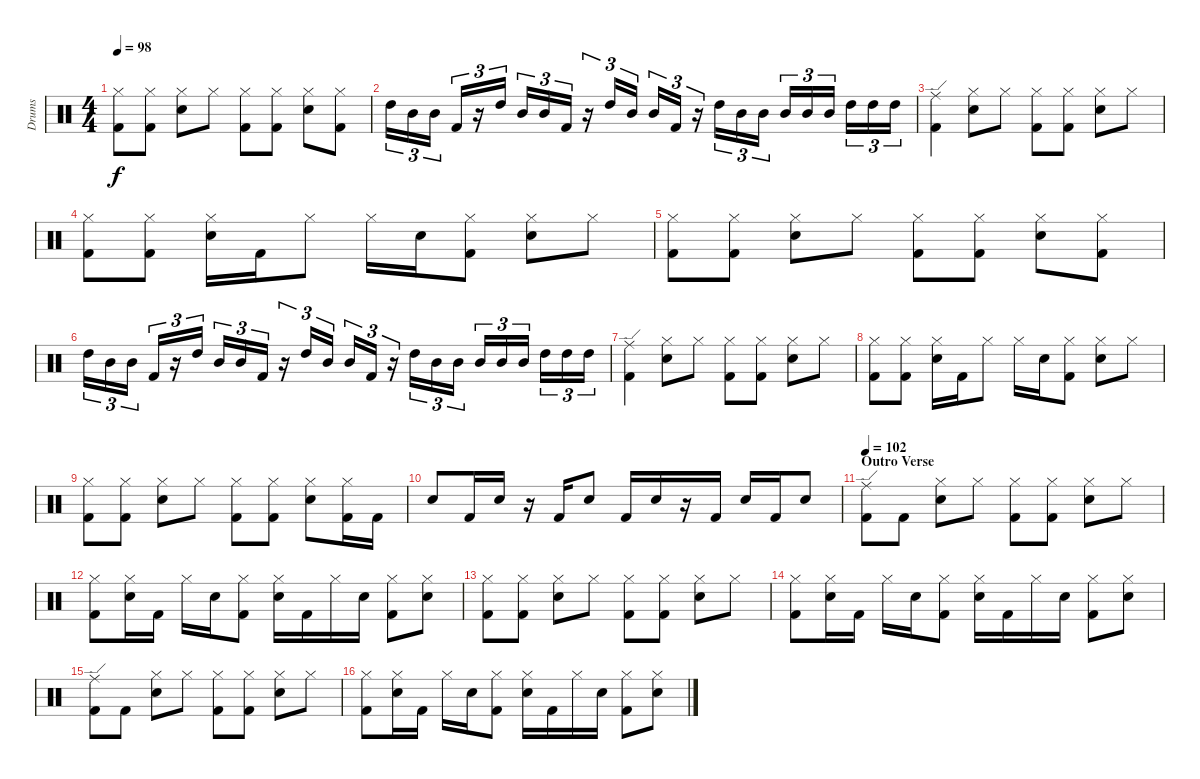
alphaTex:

\defaultSystemsLayout 4
\bracketExtendMode groupsimilarinstruments
\otherSystemsTrackNameOrientation horizontal
\track ("Drumkit (Bonham)" "Drums") {instrument percussion}
\staff {score}
\articulation defaults
\ts (4 4)
\tempo 98
\clef neutral
\scale
0.333333
\ks c
("Hi-Hat (closed)" "Kick (hit) 2").8{dy f beam Down} ("Hi-Hat (closed)" "Kick (hit) 2").8{beam Down} ("Hi-Hat (closed)" "Snare (hit) 2").8{beam Down} "Hi-Hat (closed)".8{beam Down} ("Hi-Hat (closed)" "Kick (hit) 2").8{beam Down} ("Hi-Hat (closed)" "Kick (hit) 2").8{beam Down} ("Hi-Hat (closed)" "Snare (hit) 2").8{beam Down} ("Hi-Hat (closed)" "Kick (hit) 2").8{beam Down} |
\scale
0.333333 "High Tom (hit)".16{tu (3 2) beam Down} "Mid Tom (hit)".16{tu (3 2) beam Down} "Mid Tom (hit)".16{tu (3 2) beam Down} "Kick (hit) 2".16{tu (3 2) beam Up} r.16{tu (3 2) beam Up} "High Tom (hit)".16{tu (3 2) beam Up} "Mid Tom (hit)".16{tu (3 2) beam Up} "Mid Tom (hit)".16{tu (3 2) beam Up} "Kick (hit) 2".16{tu (3 2) beam Up} r.16{tu (3 2) beam Up} "High Tom (hit)".16{tu (3 2) beam Down} "Mid Tom (hit)".16{tu (3 2) beam Down} "Mid Tom (hit)".16{tu (3 2) beam Up} "Kick (hit) 2".16{tu (3 2) beam Up} r.16{tu (3 2) beam Up} "High Tom (hit)".16{tu (3 2) beam Down} "Mid Tom (hit)".16{tu (3 2) beam Down} "Mid Tom (hit)".16{tu (3 2) beam Down} "Mid Tom (hit)".16{tu (3 2) beam Up} "Mid Tom (hit)".16{tu (3 2) beam Up} "Mid Tom (hit)".16{tu (3 2) beam Up} "High Tom (hit)".16{tu (3 2) beam Down} "High Tom (hit)".16{tu (3 2) beam Down} "High Tom (hit)".16{tu (3 2) beam Down} |
\scale
0.333333 ("Ride (edge)" "Kick (hit) 2").4{beam Down} ("Hi-Hat (closed)" "Snare (hit) 2").8{beam Down} "Hi-Hat (closed)".8{beam Down} ("Hi-Hat (closed)" "Kick (hit) 2").8{beam Down} ("Hi-Hat (closed)" "Kick (hit) 2").8{beam Down} ("Hi-Hat (closed)" "Snare (hit) 2").8{beam Down} "Hi-Hat (closed)".8{beam Down} |
\scale
0.333333 ("Hi-Hat (closed)" "Kick (hit) 2").8{beam Down} ("Hi-Hat (closed)" "Kick (hit) 2").8{beam Down} ("Hi-Hat (closed)" "Snare (hit) 2").16{beam Down} "Kick (hit) 2".16{beam Down} "Hi-Hat (closed)".8{beam Down} "Hi-Hat (closed)".16{beam Down} "Snare (hit) 2".16{beam Down} ("Hi-Hat (closed)" "Kick (hit) 2").8{beam Down} ("Hi-Hat (closed)" "Snare (hit) 2").8{beam Down} "Hi-Hat (closed)".8{beam Down} |
\scale
0.333333 ("Hi-Hat (closed)" "Kick (hit) 2").8{beam Down} ("Hi-Hat (closed)" "Kick (hit) 2").8{beam Down} ("Hi-Hat (closed)" "Snare (hit) 2").8{beam Down} "Hi-Hat (closed)".8{beam Down} ("Hi-Hat (closed)" "Kick (hit) 2").8{beam Down} ("Hi-Hat (closed)" "Kick (hit) 2").8{beam Down} ("Hi-Hat (closed)" "Snare (hit) 2").8{beam Down} ("Hi-Hat (closed)" "Kick (hit) 2").8{beam Down} |
\scale
0.333333 "High Tom (hit)".16{tu (3 2) beam Down} "Mid Tom (hit)".16{tu (3 2) beam Down} "Mid Tom (hit)".16{tu (3 2) beam Down} "Kick (hit) 2".16{tu (3 2) beam Up} r.16{tu (3 2) beam Up} "High Tom (hit)".16{tu (3 2) beam Up} "Mid Tom (hit)".16{tu (3 2) beam Up} "Mid Tom (hit)".16{tu (3 2) beam Up} "Kick (hit) 2".16{tu (3 2) beam Up} r.16{tu (3 2) beam Up} "High Tom (hit)".16{tu (3 2) beam Down} "Mid Tom (hit)".16{tu (3 2) beam Down} "Mid Tom (hit)".16{tu (3 2) beam Up} "Kick (hit) 2".16{tu (3 2) beam Up} r.16{tu (3 2) beam Up} "High Tom (hit)".16{tu (3 2) beam Down} "Mid Tom (hit)".16{tu (3 2) beam Down} "Mid Tom (hit)".16{tu (3 2) beam Down} "Mid Tom (hit)".16{tu (3 2) beam Up} "Mid Tom (hit)".16{tu (3 2) beam Up} "Mid Tom (hit)".16{tu (3 2) beam Up} "High Tom (hit)".16{tu (3 2) beam Down} "High Tom (hit)".16{tu (3 2) beam Down} "High Tom (hit)".16{tu (3 2) beam Down} |
\scale
0.333333 ("Ride (edge)" "Kick (hit) 2").4{beam Down} ("Hi-Hat (closed)" "Snare (hit) 2").8{beam Down} "Hi-Hat (closed)".8{beam Down} ("Hi-Hat (closed)" "Kick (hit) 2").8{beam Down} ("Hi-Hat (closed)" "Kick (hit) 2").8{beam Down} ("Hi-Hat (closed)" "Snare (hit) 2").8{beam Down} "Hi-Hat (closed)".8{beam Down} |
\scale
0.333333 ("Hi-Hat (closed)" "Kick (hit) 2").8{beam Down} ("Hi-Hat (closed)" "Kick (hit) 2").8{beam Down} ("Hi-Hat (closed)" "Snare (hit) 2").16{beam Down} "Kick (hit) 2".16{beam Down} "Hi-Hat (closed)".8{beam Down} "Hi-Hat (closed)".16{beam Down} "Snare (hit) 2".16{beam Down} ("Hi-Hat (closed)" "Kick (hit) 2").8{beam Down} ("Hi-Hat (closed)" "Snare (hit) 2").8{beam Down} "Hi-Hat (closed)".8{beam Down} |
\scale
0.333333 ("Hi-Hat (closed)" "Kick (hit) 2").8{beam Down} ("Hi-Hat (closed)" "Kick (hit) 2").8{beam Down} ("Hi-Hat (closed)" "Snare (hit) 2").8{beam Down} "Hi-Hat (closed)".8{beam Down} ("Hi-Hat (closed)" "Kick (hit) 2").8{beam Down} ("Hi-Hat (closed)" "Kick (hit) 2").8{beam Down} ("Hi-Hat (closed)" "Snare (hit) 2").8{beam Down} ("Hi-Hat (closed)" "Kick (hit) 2").16{beam Down} "Kick (hit) 2".16{beam Down} |
\scale
0.333333 "Snare (hit) 2".8{beam Up} "Kick (hit) 2".16{beam Up} "Snare (hit) 2".16{beam Up} r.16{beam Up} "Kick (hit) 2".16{beam Up} "Snare (hit) 2".8{beam Up} "Kick (hit) 2".16{beam Up} "Snare (hit) 2".16{beam Up} r.16{beam Up} "Kick (hit) 2".16{beam Up} "Snare (hit) 2".16{beam Up} "Kick (hit) 2".16{beam Up} "Snare (hit) 2".8{beam Up} |
\section ("" "Outro Verse")
\tempo 102
\scale
0.333333 ("Ride (edge)" "Kick (hit) 2").8{beam Down} "Kick (hit) 2".8{beam Down} ("Hi-Hat (closed)" "Snare (hit) 2").8{beam Down} "Hi-Hat (closed)".8{beam Down} ("Hi-Hat (closed)" "Kick (hit) 2").8{beam Down} ("Hi-Hat (closed)" "Kick (hit) 2").8{beam Down} ("Hi-Hat (closed)" "Snare (hit) 2").8{beam Down} "Hi-Hat (closed)".8{beam Down} |
\scale
0.333333 ("Hi-Hat (closed)" "Kick (hit) 2").8{beam Down} ("Hi-Hat (closed)" "Snare (hit) 2").16{beam Down} "Kick (hit) 2".16{beam Down} "Hi-Hat (closed)".16{beam Down} "Snare (hit) 2".16{beam Down} ("Hi-Hat (closed)" "Kick (hit) 2").8{beam Down} ("Hi-Hat (closed)" "Snare (hit) 2").16{beam Down} "Kick (hit) 2".16{beam Down} "Hi-Hat (closed)".16{beam Down} "Snare (hit) 2".16{beam Down} ("Hi-Hat (closed)" "Kick (hit) 2").8{beam Down} ("Hi-Hat (closed)" "Snare (hit) 2").8{beam Down} |
\scale
0.333333 ("Hi-Hat (closed)" "Kick (hit) 2").8{beam Down} ("Hi-Hat (closed)" "Kick (hit) 2").8{beam Down} ("Hi-Hat (closed)" "Snare (hit) 2").8{beam Down} "Hi-Hat (closed)".8{beam Down} ("Hi-Hat (closed)" "Kick (hit) 2").8{beam Down} ("Hi-Hat (closed)" "Kick (hit) 2").8{beam Down} ("Hi-Hat (closed)" "Snare (hit) 2").8{beam Down} "Hi-Hat (closed)".8{beam Down} |
\scale
0.333333 ("Hi-Hat (closed)" "Kick (hit) 2").8{beam Down} ("Hi-Hat (closed)" "Snare (hit) 2").16{beam Down} "Kick (hit) 2".16{beam Down} "Hi-Hat (closed)".16{beam Down} "Snare (hit) 2".16{beam Down} ("Hi-Hat (closed)" "Kick (hit) 2").8{beam Down} ("Hi-Hat (closed)" "Snare (hit) 2").16{beam Down} "Kick (hit) 2".16{beam Down} "Hi-Hat (closed)".16{beam Down} "Snare (hit) 2".16{beam Down} ("Hi-Hat (closed)" "Kick (hit) 2").8{beam Down} ("Hi-Hat (closed)" "Snare (hit) 2").8{beam Down} |
\scale
0.333333 ("Ride (edge)" "Kick (hit) 2").8{beam Down} "Kick (hit) 2".8{beam Down} ("Hi-Hat (closed)" "Snare (hit) 2").8{beam Down} "Hi-Hat (closed)".8{beam Down} ("Hi-Hat (closed)" "Kick (hit) 2").8{beam Down} ("Hi-Hat (closed)" "Kick (hit) 2").8{beam Down} ("Hi-Hat (closed)" "Snare (hit) 2").8{beam Down} "Hi-Hat (closed)".8{beam Down} |
\scale
0.333333 ("Hi-Hat (closed)" "Kick (hit) 2").8{beam Down} ("Hi-Hat (closed)" "Snare (hit) 2").16{beam Down} "Kick (hit) 2".16{beam Down} "Hi-Hat (closed)".16{beam Down} "Snare (hit) 2".16{beam Down} ("Hi-Hat (closed)" "Kick (hit) 2").8{beam Down} ("Hi-Hat (closed)" "Snare (hit) 2").16{beam Down} "Kick (hit) 2".16{beam Down} "Hi-Hat (closed)".16{beam Down} "Snare (hit) 2".16{beam Down} ("Hi-Hat (closed)" "Kick (hit) 2").8{beam Down} ("Hi-Hat (closed)" "Snare (hit) 2").8{beam Down}
